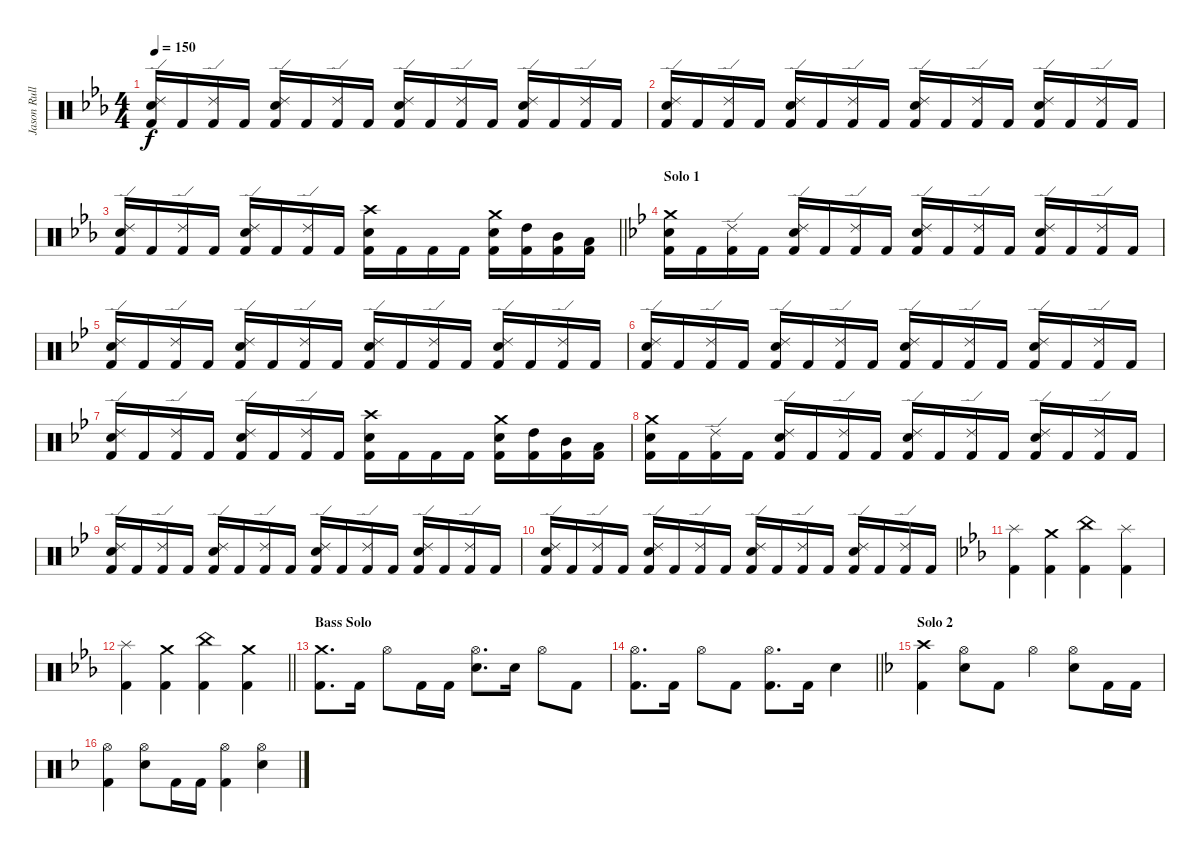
\track ("Jason Rullo" "Jason Rull") {instrument percussion}
\staff {score}
\articulation defaults
\ts (4 4)
\tempo 150
\clef neutral
\ks cminor
("Ride (edge) 2" "Electric Snare (hit)" "Kick (hit) 2").16{dy f} "Kick (hit) 2".16 ("Ride (edge) 2" "Kick (hit) 2").16 "Kick (hit) 2".16 ("Ride (edge) 2" "Electric Snare (hit)" "Kick (hit) 2").16 "Kick (hit) 2".16 ("Ride (edge) 2" "Kick (hit) 2").16 "Kick (hit) 2".16 ("Ride (edge) 2" "Electric Snare (hit)" "Kick (hit) 2").16 "Kick (hit) 2".16 ("Ride (edge) 2" "Kick (hit) 2").16 "Kick (hit) 2".16 ("Ride (edge) 2" "Electric Snare (hit)" "Kick (hit) 2").16 "Kick (hit) 2".16 ("Ride (edge) 2" "Kick (hit) 2").16 "Kick (hit) 2".16 |
("Ride (edge) 2" "Electric Snare (hit)" "Kick (hit) 2").16 "Kick (hit) 2".16 ("Ride (edge) 2" "Kick (hit) 2").16 "Kick (hit) 2".16 ("Ride (edge) 2" "Electric Snare (hit)" "Kick (hit) 2").16 "Kick (hit) 2".16 ("Ride (edge) 2" "Kick (hit) 2").16 "Kick (hit) 2".16 ("Ride (edge) 2" "Electric Snare (hit)" "Kick (hit) 2").16 "Kick (hit) 2".16 ("Ride (edge) 2" "Kick (hit) 2").16 "Kick (hit) 2".16 ("Ride (edge) 2" "Electric Snare (hit)" "Kick (hit) 2").16 "Kick (hit) 2".16 ("Ride (edge) 2" "Kick (hit) 2").16 "Kick (hit) 2".16 |
\barLineRight lightlight
("Ride (edge) 2" "Electric Snare (hit)" "Kick (hit) 2").16 "Kick (hit) 2".16 ("Ride (edge) 2" "Kick (hit) 2").16 "Kick (hit) 2".16 ("Ride (edge) 2" "Electric Snare (hit)" "Kick (hit) 2").16 "Kick (hit) 2".16 ("Ride (edge) 2" "Kick (hit) 2").16 "Kick (hit) 2".16 ("Crash high (hit)" "Electric Snare (hit)" "Kick (hit) 2").16 "Kick (hit) 2".16 "Kick (hit) 2".16 "Kick (hit) 2".16 ("Crash medium (hit)" "Electric Snare (hit)" "Kick (hit) 2").16 ("High Tom (hit)" "Kick (hit) 2").16 ("Mid Tom (hit)" "Kick (hit) 2").16 ("Low Tom (hit)" "Kick (hit) 2").16 |
\section ("" "Solo 1")
\ks gminor
("Crash medium (hit)" "Electric Snare (hit)" "Kick (hit) 2").16 "Kick (hit) 2".16 ("Ride (edge) 2" "Kick (hit) 2").16 "Kick (hit) 2".16 ("Ride (edge) 2" "Electric Snare (hit)" "Kick (hit) 2").16 "Kick (hit) 2".16 ("Ride (edge) 2" "Kick (hit) 2").16 "Kick (hit) 2".16 ("Ride (edge) 2" "Electric Snare (hit)" "Kick (hit) 2").16 "Kick (hit) 2".16 ("Ride (edge) 2" "Kick (hit) 2").16 "Kick (hit) 2".16 ("Ride (edge) 2" "Electric Snare (hit)" "Kick (hit) 2").16 "Kick (hit) 2".16 ("Ride (edge) 2" "Kick (hit) 2").16 "Kick (hit) 2".16 |
("Ride (edge) 2" "Electric Snare (hit)" "Kick (hit) 2").16 "Kick (hit) 2".16 ("Ride (edge) 2" "Kick (hit) 2").16 "Kick (hit) 2".16 ("Ride (edge) 2" "Electric Snare (hit)" "Kick (hit) 2").16 "Kick (hit) 2".16 ("Ride (edge) 2" "Kick (hit) 2").16 "Kick (hit) 2".16 ("Ride (edge) 2" "Electric Snare (hit)" "Kick (hit) 2").16 "Kick (hit) 2".16 ("Ride (edge) 2" "Kick (hit) 2").16 "Kick (hit) 2".16 ("Ride (edge) 2" "Electric Snare (hit)" "Kick (hit) 2").16 "Kick (hit) 2".16 ("Ride (edge) 2" "Kick (hit) 2").16 "Kick (hit) 2".16 |
("Ride (edge) 2" "Electric Snare (hit)" "Kick (hit) 2").16 "Kick (hit) 2".16 ("Ride (edge) 2" "Kick (hit) 2").16 "Kick (hit) 2".16 ("Ride (edge) 2" "Electric Snare (hit)" "Kick (hit) 2").16 "Kick (hit) 2".16 ("Ride (edge) 2" "Kick (hit) 2").16 "Kick (hit) 2".16 ("Ride (edge) 2" "Electric Snare (hit)" "Kick (hit) 2").16 "Kick (hit) 2".16 ("Ride (edge) 2" "Kick (hit) 2").16 "Kick (hit) 2".16 ("Ride (edge) 2" "Electric Snare (hit)" "Kick (hit) 2").16 "Kick (hit) 2".16 ("Ride (edge) 2" "Kick (hit) 2").16 "Kick (hit) 2".16 |
("Ride (edge) 2" "Electric Snare (hit)" "Kick (hit) 2").16 "Kick (hit) 2".16 ("Ride (edge) 2" "Kick (hit) 2").16 "Kick (hit) 2".16 ("Ride (edge) 2" "Electric Snare (hit)" "Kick (hit) 2").16 "Kick (hit) 2".16 ("Ride (edge) 2" "Kick (hit) 2").16 "Kick (hit) 2".16 ("Crash high (hit)" "Electric Snare (hit)" "Kick (hit) 2").16 "Kick (hit) 2".16 "Kick (hit) 2".16 "Kick (hit) 2".16 ("Crash medium (hit)" "Electric Snare (hit)" "Kick (hit) 2").16 ("High Tom (hit)" "Kick (hit) 2").16 ("Mid Tom (hit)" "Kick (hit) 2").16 ("Low Tom (hit)" "Kick (hit) 2").16 |
("Crash medium (hit)" "Electric Snare (hit)" "Kick (hit) 2").16 "Kick (hit) 2".16 ("Ride (edge) 2" "Kick (hit) 2").16 "Kick (hit) 2".16 ("Ride (edge) 2" "Electric Snare (hit)" "Kick (hit) 2").16 "Kick (hit) 2".16 ("Ride (edge) 2" "Kick (hit) 2").16 "Kick (hit) 2".16 ("Ride (edge) 2" "Electric Snare (hit)" "Kick (hit) 2").16 "Kick (hit) 2".16 ("Ride (edge) 2" "Kick (hit) 2").16 "Kick (hit) 2".16 ("Ride (edge) 2" "Electric Snare (hit)" "Kick (hit) 2").16 "Kick (hit) 2".16 ("Ride (edge) 2" "Kick (hit) 2").16 "Kick (hit) 2".16 |
("Ride (edge) 2" "Electric Snare (hit)" "Kick (hit) 2").16 "Kick (hit) 2".16 ("Ride (edge) 2" "Kick (hit) 2").16 "Kick (hit) 2".16 ("Ride (edge) 2" "Electric Snare (hit)" "Kick (hit) 2").16 "Kick (hit) 2".16 ("Ride (edge) 2" "Kick (hit) 2").16 "Kick (hit) 2".16 ("Ride (edge) 2" "Electric Snare (hit)" "Kick (hit) 2").16 "Kick (hit) 2".16 ("Ride (edge) 2" "Kick (hit) 2").16 "Kick (hit) 2".16 ("Ride (edge) 2" "Electric Snare (hit)" "Kick (hit) 2").16 "Kick (hit) 2".16 ("Ride (edge) 2" "Kick (hit) 2").16 "Kick (hit) 2".16 |
("Ride (edge) 2" "Electric Snare (hit)" "Kick (hit) 2").16 "Kick (hit) 2".16 ("Ride (edge) 2" "Kick (hit) 2").16 "Kick (hit) 2".16 ("Ride (edge) 2" "Electric Snare (hit)" "Kick (hit) 2").16 "Kick (hit) 2".16 ("Ride (edge) 2" "Kick (hit) 2").16 "Kick (hit) 2".16 ("Ride (edge) 2" "Electric Snare (hit)" "Kick (hit) 2").16 "Kick (hit) 2".16 ("Ride (edge) 2" "Kick (hit) 2").16 "Kick (hit) 2".16 ("Ride (edge) 2" "Electric Snare (hit)" "Kick (hit) 2").16 "Kick (hit) 2".16 ("Ride (edge) 2" "Kick (hit) 2").16 "Kick (hit) 2".16 |
\ks cminor
("Splash (hit)" "Kick (hit) 2").4 ("Crash medium (hit)" "Kick (hit) 2").4 ("China (hit)" "Kick (hit) 2").4 ("Splash (hit)" "Kick (hit) 2").4 |
\barLineRight lightlight
("Splash (hit)" "Kick (hit) 2").4 ("Crash medium (hit)" "Kick (hit) 2").4 ("China (hit)" "Kick (hit) 2").4 ("Crash medium (hit)" "Kick (hit) 2").4 |
\section ("" "Bass Solo")
("Crash medium (hit)" "Kick (hit) 2").8{d} "Kick (hit) 2".16 "Hi-Hat (open)".8 "Kick (hit) 2".16 "Kick (hit) 2".16 ("Hi-Hat (open)" "Electric Snare (hit)").8{d} "Electric Snare (hit)".16 "Hi-Hat (open)".8 "Kick (hit) 2".8 |
\barLineRight lightlight
("Hi-Hat (open)" "Kick (hit) 2").8{d} "Kick (hit) 2".16 "Hi-Hat (open)".8 "Kick (hit) 2".8 ("Hi-Hat (open)" "Kick (hit) 2").8{d} "Kick (hit) 2".16 "Electric Snare (hit)".4 |
\section ("" "Solo 2")
\ks dminor
("Crash high (hit)" "Kick (hit) 2").4 ("Hi-Hat (open)" "Electric Snare (hit)").8 "Kick (hit) 2".8 "Hi-Hat (open)".4 ("Hi-Hat (open)" "Electric Snare (hit)").8 "Kick (hit) 2".16 "Kick (hit) 2".16 |
("Hi-Hat (open)" "Kick (hit) 2").4 ("Hi-Hat (open)" "Electric Snare (hit)").8 "Kick (hit) 2".16 "Kick (hit) 2".16 ("Hi-Hat (open)" "Kick (hit) 2").4 ("Hi-Hat (open)" "Electric Snare (hit)").4
